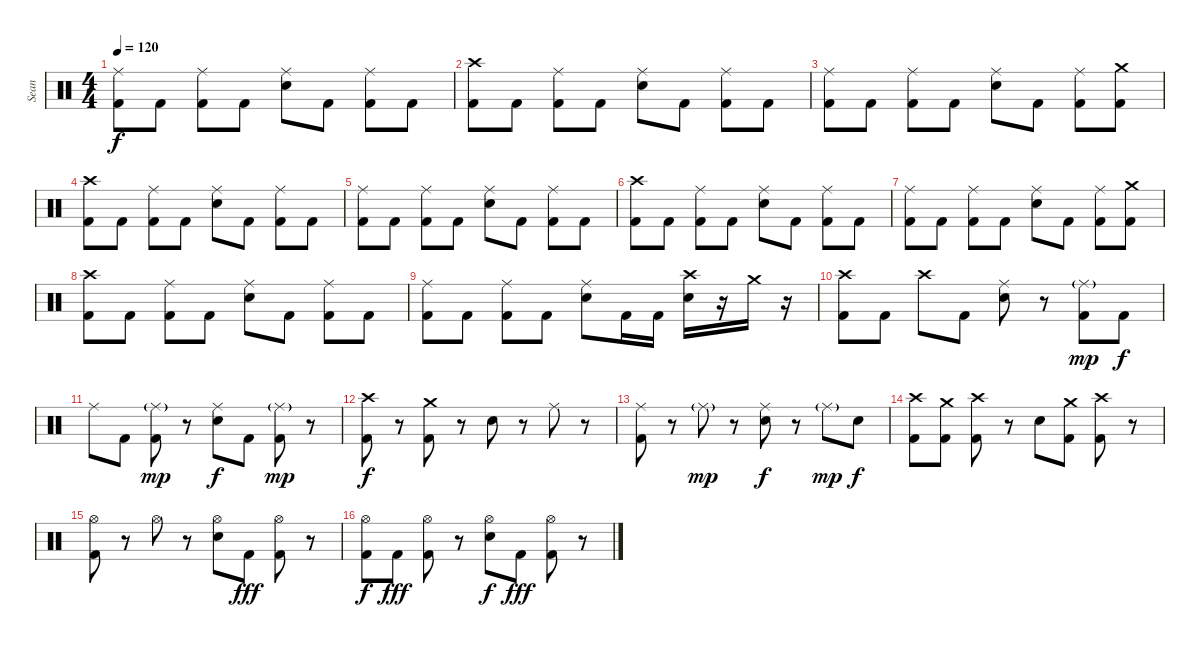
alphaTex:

\track ("Sean" "Sean") {instrument percussion}
\staff {score}
\articulation defaults
\ts (4 4)
\tempo 120
\clef neutral
\ks c
("Ride (middle)" "Kick (hit) 2").8{dy f} "Kick (hit) 2".8 ("Ride (middle)" "Kick (hit) 2").8 "Kick (hit) 2".8 ("Ride (middle)" "Snare (hit) 2").8 "Kick (hit) 2".8 ("Ride (middle)" "Kick (hit) 2").8 "Kick (hit) 2".8 |
("Crash high (hit)" "Kick (hit) 2").8 "Kick (hit) 2".8 ("Ride (middle)" "Kick (hit) 2").8 "Kick (hit) 2".8 ("Ride (middle)" "Snare (hit) 2").8 "Kick (hit) 2".8 ("Ride (middle)" "Kick (hit) 2").8 "Kick (hit) 2".8 |
("Ride (middle)" "Kick (hit) 2").8 "Kick (hit) 2".8 ("Ride (middle)" "Kick (hit) 2").8 "Kick (hit) 2".8 ("Ride (middle)" "Snare (hit) 2").8 "Kick (hit) 2".8 ("Ride (middle)" "Kick (hit) 2").8 ("Crash medium (hit)" "Kick (hit) 2").8 |
("Crash high (hit)" "Kick (hit) 2").8 "Kick (hit) 2".8 ("Ride (middle)" "Kick (hit) 2").8 "Kick (hit) 2".8 ("Ride (middle)" "Snare (hit) 2").8 "Kick (hit) 2".8 ("Ride (middle)" "Kick (hit) 2").8 "Kick (hit) 2".8 |
("Ride (middle)" "Kick (hit) 2").8 "Kick (hit) 2".8 ("Ride (middle)" "Kick (hit) 2").8 "Kick (hit) 2".8 ("Ride (middle)" "Snare (hit) 2").8 "Kick (hit) 2".8 ("Ride (middle)" "Kick (hit) 2").8 "Kick (hit) 2".8 |
("Crash high (hit)" "Kick (hit) 2").8 "Kick (hit) 2".8 ("Ride (middle)" "Kick (hit) 2").8 "Kick (hit) 2".8 ("Ride (middle)" "Snare (hit) 2").8 "Kick (hit) 2".8 ("Ride (middle)" "Kick (hit) 2").8 "Kick (hit) 2".8 |
("Ride (middle)" "Kick (hit) 2").8 "Kick (hit) 2".8 ("Ride (middle)" "Kick (hit) 2").8 "Kick (hit) 2".8 ("Ride (middle)" "Snare (hit) 2").8 "Kick (hit) 2".8 ("Ride (middle)" "Kick (hit) 2").8 ("Crash medium (hit)" "Kick (hit) 2").8 |
("Crash high (hit)" "Kick (hit) 2").8 "Kick (hit) 2".8 ("Ride (middle)" "Kick (hit) 2").8 "Kick (hit) 2".8 ("Ride (middle)" "Snare (hit) 2").8 "Kick (hit) 2".8 ("Ride (middle)" "Kick (hit) 2").8 "Kick (hit) 2".8 |
("Ride (middle)" "Kick (hit) 2").8 "Kick (hit) 2".8 ("Ride (middle)" "Kick (hit) 2").8 "Kick (hit) 2".8 ("Ride (middle)" "Snare (hit) 2").8 "Kick (hit) 2".16 "Kick (hit) 2".16 ("Crash high (hit)" "Snare (hit) 2").16 r.16 "Crash medium (hit)".16 r.16 |
("Crash high (hit)" "Kick (hit) 2").8 "Kick (hit) 2".8 "Crash high (hit)".8 "Kick (hit) 2".8 ("Ride (middle)" "Snare (hit) 2").8 r.8 ("Ride (middle)"{g} "Kick (hit) 2").8{dy mp} "Kick (hit) 2".8{dy f} |
"Ride (middle)".8 "Kick (hit) 2".8 ("Ride (middle)"{g} "Kick (hit) 2").8{dy mp} r.8 ("Ride (middle)" "Snare (hit) 2").8{dy f} "Kick (hit) 2".8 ("Ride (middle)"{g} "Kick (hit) 2").8{dy mp} r.8 |
("Crash high (hit)" "Kick (hit) 2").8{dy f} r.8 ("Crash medium (hit)" "Kick (hit) 2").8 r.8 "Snare (hit) 2".8 r.8 "Ride (middle)".8 r.8 |
("Ride (middle)" "Kick (hit) 2").8 r.8 "Ride (middle)"{g}.8{dy mp} r.8 ("Ride (middle)" "Snare (hit) 2").8{dy f} r.8 "Ride (middle)"{g}.8{dy mp} "Snare (hit) 2".8{dy f} |
("Crash high (hit)" "Kick (hit) 2").8 ("Crash medium (hit)" "Kick (hit) 2").8 ("Crash high (hit)" "Kick (hit) 2").8 r.8 "Snare (hit) 2".8 ("Crash medium (hit)" "Kick (hit) 2").8 ("Crash high (hit)" "Kick (hit) 2").8 r.8 |
("Hi-Hat (open)" "Kick (hit) 2").8 r.8 "Hi-Hat (open)".8 r.8 ("Hi-Hat (open)" "Snare (hit) 2").8 "Kick (hit) 2".8{dy fff} ("Hi-Hat (open)" "Kick (hit) 2").8 r.8 |
("Hi-Hat (open)" "Kick (hit) 2").8{dy f} "Kick (hit) 2".8{dy fff} ("Hi-Hat (open)" "Kick (hit) 2").8 r.8 ("Hi-Hat (open)" "Snare (hit) 2").8{dy f} "Kick (hit) 2".8{dy fff} ("Hi-Hat (open)" "Kick (hit) 2").8 r.8
